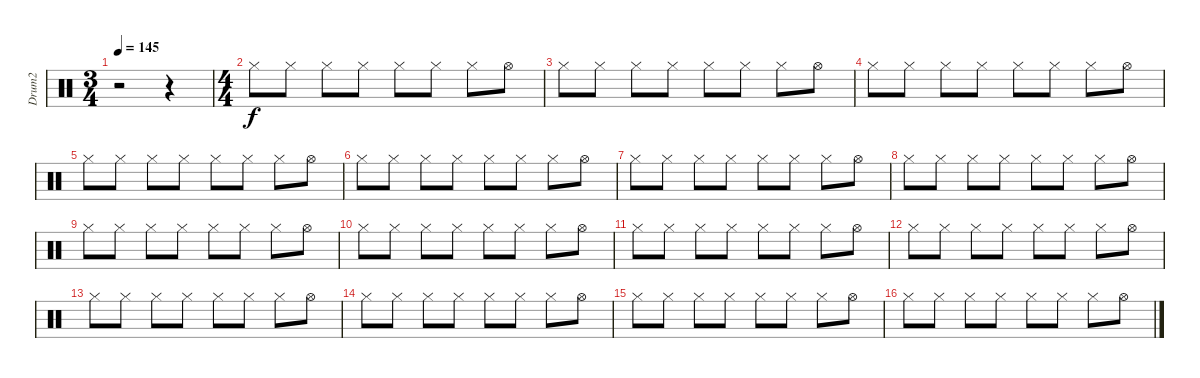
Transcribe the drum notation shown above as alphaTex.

\track ("Drum2" "Drum2") {instrument percussion}
\staff {score}
\articulation defaults
\ts (3 4)
\tempo 145
\clef neutral
\ks c
r.2{dy f} r.4 |
\ts (4 4)
"Hi-Hat (closed)".8 "Hi-Hat (closed)".8 "Hi-Hat (closed)".8 "Hi-Hat (closed)".8 "Hi-Hat (closed)".8 "Hi-Hat (closed)".8 "Hi-Hat (closed)".8 "Hi-Hat (open)".8 |
"Hi-Hat (closed)".8 "Hi-Hat (closed)".8 "Hi-Hat (closed)".8 "Hi-Hat (closed)".8 "Hi-Hat (closed)".8 "Hi-Hat (closed)".8 "Hi-Hat (closed)".8 "Hi-Hat (open)".8 |
"Hi-Hat (closed)".8 "Hi-Hat (closed)".8 "Hi-Hat (closed)".8 "Hi-Hat (closed)".8 "Hi-Hat (closed)".8 "Hi-Hat (closed)".8 "Hi-Hat (closed)".8 "Hi-Hat (open)".8 |
"Hi-Hat (closed)".8 "Hi-Hat (closed)".8 "Hi-Hat (closed)".8 "Hi-Hat (closed)".8 "Hi-Hat (closed)".8 "Hi-Hat (closed)".8 "Hi-Hat (closed)".8 "Hi-Hat (open)".8 |
"Hi-Hat (closed)".8 "Hi-Hat (closed)".8 "Hi-Hat (closed)".8 "Hi-Hat (closed)".8 "Hi-Hat (closed)".8 "Hi-Hat (closed)".8 "Hi-Hat (closed)".8 "Hi-Hat (open)".8 |
"Hi-Hat (closed)".8 "Hi-Hat (closed)".8 "Hi-Hat (closed)".8 "Hi-Hat (closed)".8 "Hi-Hat (closed)".8 "Hi-Hat (closed)".8 "Hi-Hat (closed)".8 "Hi-Hat (open)".8 |
"Hi-Hat (closed)".8 "Hi-Hat (closed)".8 "Hi-Hat (closed)".8 "Hi-Hat (closed)".8 "Hi-Hat (closed)".8 "Hi-Hat (closed)".8 "Hi-Hat (closed)".8 "Hi-Hat (open)".8 |
"Hi-Hat (closed)".8 "Hi-Hat (closed)".8 "Hi-Hat (closed)".8 "Hi-Hat (closed)".8 "Hi-Hat (closed)".8 "Hi-Hat (closed)".8 "Hi-Hat (closed)".8 "Hi-Hat (open)".8 |
"Hi-Hat (closed)".8 "Hi-Hat (closed)".8 "Hi-Hat (closed)".8 "Hi-Hat (closed)".8 "Hi-Hat (closed)".8 "Hi-Hat (closed)".8 "Hi-Hat (closed)".8 "Hi-Hat (open)".8 |
"Hi-Hat (closed)".8 "Hi-Hat (closed)".8 "Hi-Hat (closed)".8 "Hi-Hat (closed)".8 "Hi-Hat (closed)".8 "Hi-Hat (closed)".8 "Hi-Hat (closed)".8 "Hi-Hat (open)".8 |
"Hi-Hat (closed)".8 "Hi-Hat (closed)".8 "Hi-Hat (closed)".8 "Hi-Hat (closed)".8 "Hi-Hat (closed)".8 "Hi-Hat (closed)".8 "Hi-Hat (closed)".8 "Hi-Hat (open)".8 |
"Hi-Hat (closed)".8 "Hi-Hat (closed)".8 "Hi-Hat (closed)".8 "Hi-Hat (closed)".8 "Hi-Hat (closed)".8 "Hi-Hat (closed)".8 "Hi-Hat (closed)".8 "Hi-Hat (open)".8 |
"Hi-Hat (closed)".8 "Hi-Hat (closed)".8 "Hi-Hat (closed)".8 "Hi-Hat (closed)".8 "Hi-Hat (closed)".8 "Hi-Hat (closed)".8 "Hi-Hat (closed)".8 "Hi-Hat (open)".8 |
"Hi-Hat (closed)".8 "Hi-Hat (closed)".8 "Hi-Hat (closed)".8 "Hi-Hat (closed)".8 "Hi-Hat (closed)".8 "Hi-Hat (closed)".8 "Hi-Hat (closed)".8 "Hi-Hat (open)".8 |
"Hi-Hat (closed)".8 "Hi-Hat (closed)".8 "Hi-Hat (closed)".8 "Hi-Hat (closed)".8 "Hi-Hat (closed)".8 "Hi-Hat (closed)".8 "Hi-Hat (closed)".8 "Hi-Hat (open)".8
